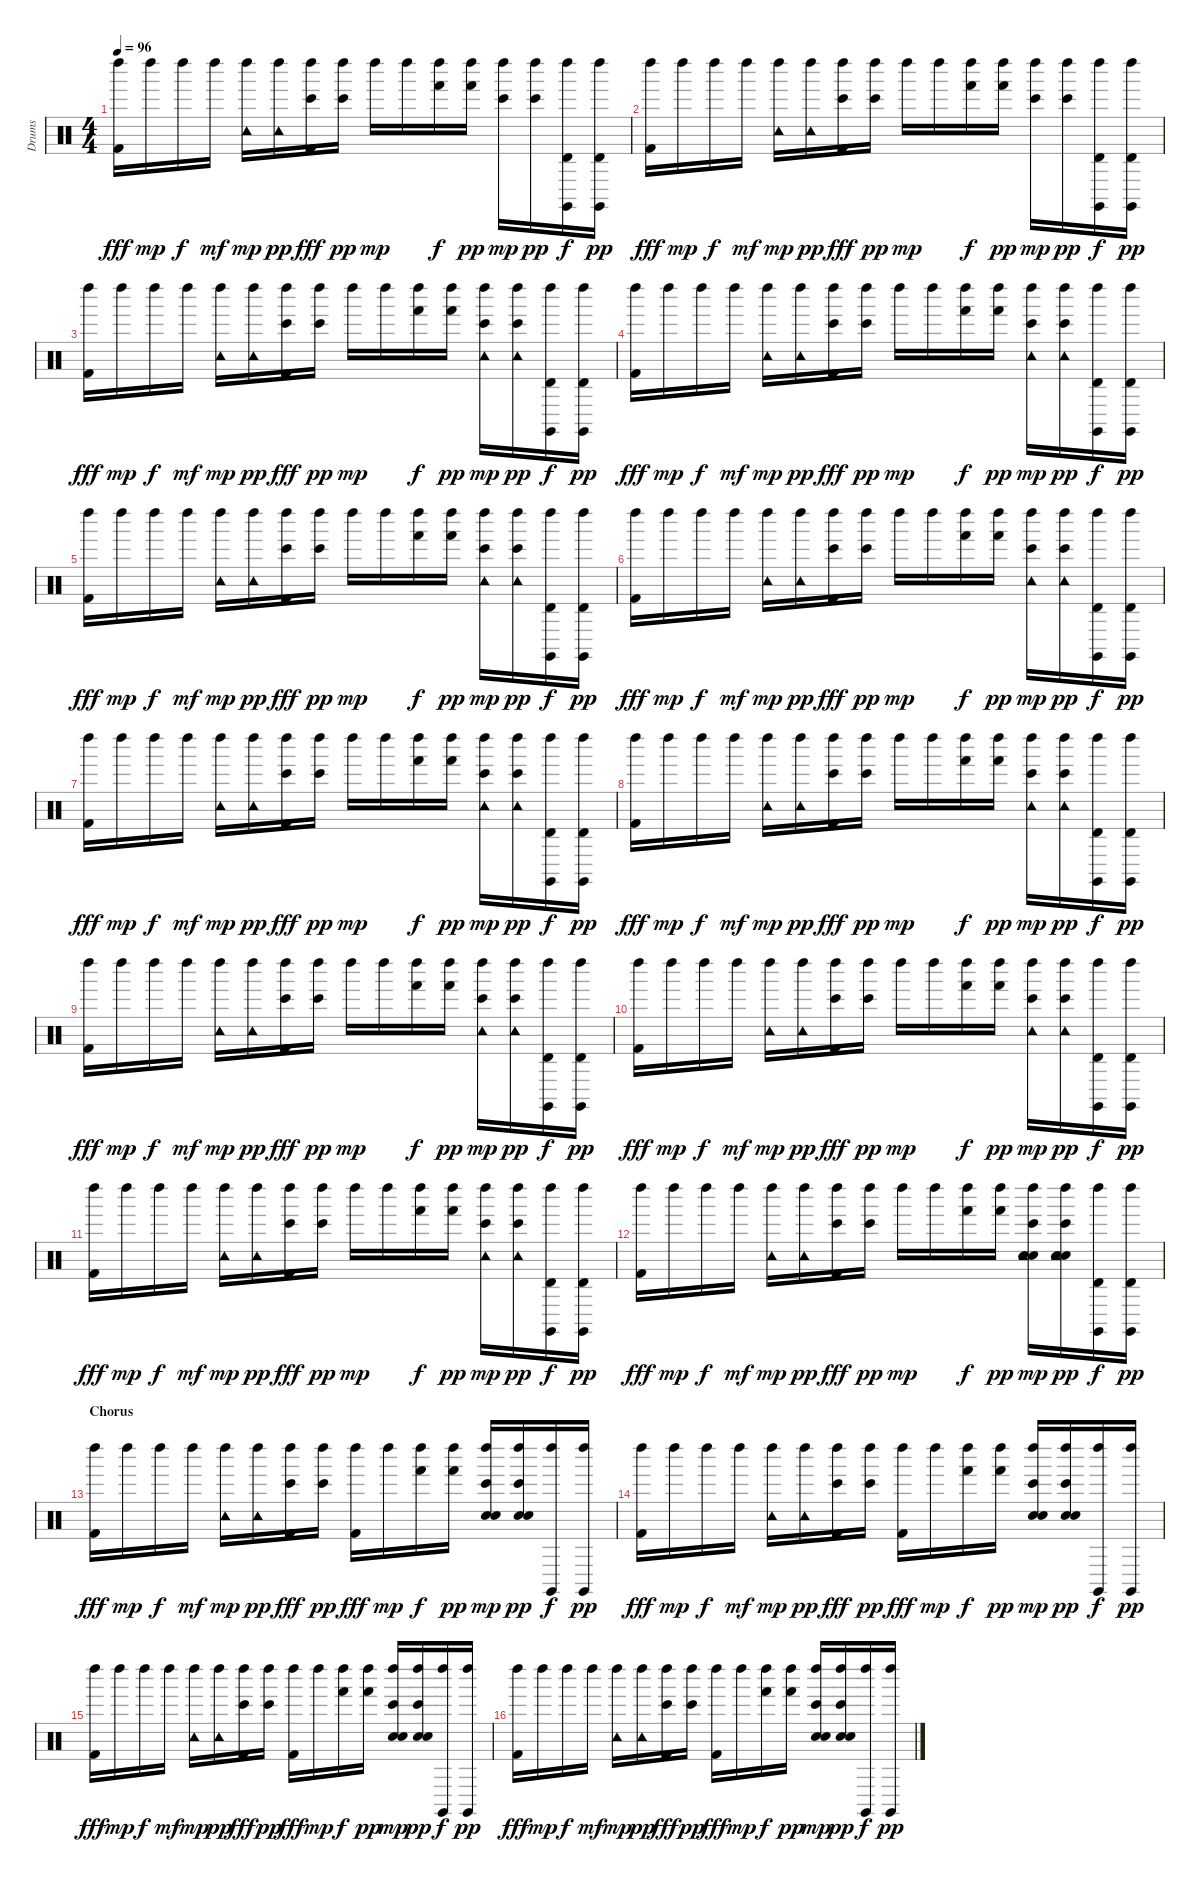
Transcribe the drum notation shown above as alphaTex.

\track ("Drums" "Drums") {instrument percussion}
\staff {score}
\articulation defaults
\ts (4 4)
\tempo 96
\clef neutral
\ks c
("Left Maraca (hit)" "Kick (hit) 2").16{dy fff} "Left Maraca (hit)".16{dy mp} "Left Maraca (hit)".16{dy f} "Left Maraca (hit)".16{dy mf} ("Left Maraca (hit)" "Tambourine (hit)").16{dy mp} ("Left Maraca (hit)" "Tambourine (hit)").16{dy pp} ("Left Maraca (hit)" "Bongo High (hit)" "Kick (hit) 2").16{dy fff} ("Left Maraca (hit)" "Bongo High (hit)").16{dy pp} "Left Maraca (hit)".16{dy mp} "Left Maraca (hit)".16 ("Left Maraca (hit)" "Hand (hit)").16{dy f} ("Left Maraca (hit)" "Hand (hit)").16{dy pp} ("Left Maraca (hit)" "Bongo High (hit)").16{dy mp} ("Left Maraca (hit)" "Bongo High (hit)").16{dy pp} ("Left Maraca (hit)" "Claves (hit)" "Timbale high (hit)").16{dy f} ("Left Maraca (hit)" "Claves (hit)" "Timbale high (hit)").16{dy pp} |
("Left Maraca (hit)" "Kick (hit) 2").16{dy fff} "Left Maraca (hit)".16{dy mp} "Left Maraca (hit)".16{dy f} "Left Maraca (hit)".16{dy mf} ("Left Maraca (hit)" "Tambourine (hit)").16{dy mp} ("Left Maraca (hit)" "Tambourine (hit)").16{dy pp} ("Left Maraca (hit)" "Bongo High (hit)" "Kick (hit) 2").16{dy fff} ("Left Maraca (hit)" "Bongo High (hit)").16{dy pp} "Left Maraca (hit)".16{dy mp} "Left Maraca (hit)".16 ("Left Maraca (hit)" "Hand (hit)").16{dy f} ("Left Maraca (hit)" "Hand (hit)").16{dy pp} ("Left Maraca (hit)" "Bongo High (hit)").16{dy mp} ("Left Maraca (hit)" "Bongo High (hit)").16{dy pp} ("Left Maraca (hit)" "Claves (hit)" "Timbale high (hit)").16{dy f} ("Left Maraca (hit)" "Claves (hit)" "Timbale high (hit)").16{dy pp} |
("Left Maraca (hit)" "Kick (hit) 2").16{dy fff} "Left Maraca (hit)".16{dy mp} "Left Maraca (hit)".16{dy f} "Left Maraca (hit)".16{dy mf} ("Left Maraca (hit)" "Tambourine (hit)").16{dy mp} ("Left Maraca (hit)" "Tambourine (hit)").16{dy pp} ("Left Maraca (hit)" "Bongo High (hit)" "Kick (hit) 2").16{dy fff} ("Left Maraca (hit)" "Bongo High (hit)").16{dy pp} "Left Maraca (hit)".16{dy mp} "Left Maraca (hit)".16 ("Left Maraca (hit)" "Hand (hit)").16{dy f} ("Left Maraca (hit)" "Hand (hit)").16{dy pp} ("Left Maraca (hit)" "Bongo High (hit)" "Tambourine (hit)").16{dy mp} ("Left Maraca (hit)" "Bongo High (hit)" "Tambourine (hit)").16{dy pp} ("Left Maraca (hit)" "Claves (hit)" "Timbale high (hit)").16{dy f} ("Left Maraca (hit)" "Claves (hit)" "Timbale high (hit)").16{dy pp} |
("Left Maraca (hit)" "Kick (hit) 2").16{dy fff} "Left Maraca (hit)".16{dy mp} "Left Maraca (hit)".16{dy f} "Left Maraca (hit)".16{dy mf} ("Left Maraca (hit)" "Tambourine (hit)").16{dy mp} ("Left Maraca (hit)" "Tambourine (hit)").16{dy pp} ("Left Maraca (hit)" "Bongo High (hit)" "Kick (hit) 2").16{dy fff} ("Left Maraca (hit)" "Bongo High (hit)").16{dy pp} "Left Maraca (hit)".16{dy mp} "Left Maraca (hit)".16 ("Left Maraca (hit)" "Hand (hit)").16{dy f} ("Left Maraca (hit)" "Hand (hit)").16{dy pp} ("Left Maraca (hit)" "Bongo High (hit)" "Tambourine (hit)").16{dy mp} ("Left Maraca (hit)" "Bongo High (hit)" "Tambourine (hit)").16{dy pp} ("Left Maraca (hit)" "Claves (hit)" "Timbale high (hit)").16{dy f} ("Left Maraca (hit)" "Claves (hit)" "Timbale high (hit)").16{dy pp} |
("Left Maraca (hit)" "Kick (hit) 2").16{dy fff} "Left Maraca (hit)".16{dy mp} "Left Maraca (hit)".16{dy f} "Left Maraca (hit)".16{dy mf} ("Left Maraca (hit)" "Tambourine (hit)").16{dy mp} ("Left Maraca (hit)" "Tambourine (hit)").16{dy pp} ("Left Maraca (hit)" "Bongo High (hit)" "Kick (hit) 2").16{dy fff} ("Left Maraca (hit)" "Bongo High (hit)").16{dy pp} "Left Maraca (hit)".16{dy mp} "Left Maraca (hit)".16 ("Left Maraca (hit)" "Hand (hit)").16{dy f} ("Left Maraca (hit)" "Hand (hit)").16{dy pp} ("Left Maraca (hit)" "Bongo High (hit)" "Tambourine (hit)").16{dy mp} ("Left Maraca (hit)" "Bongo High (hit)" "Tambourine (hit)").16{dy pp} ("Left Maraca (hit)" "Claves (hit)" "Timbale high (hit)").16{dy f} ("Left Maraca (hit)" "Claves (hit)" "Timbale high (hit)").16{dy pp} |
("Left Maraca (hit)" "Kick (hit) 2").16{dy fff} "Left Maraca (hit)".16{dy mp} "Left Maraca (hit)".16{dy f} "Left Maraca (hit)".16{dy mf} ("Left Maraca (hit)" "Tambourine (hit)").16{dy mp} ("Left Maraca (hit)" "Tambourine (hit)").16{dy pp} ("Left Maraca (hit)" "Bongo High (hit)" "Kick (hit) 2").16{dy fff} ("Left Maraca (hit)" "Bongo High (hit)").16{dy pp} "Left Maraca (hit)".16{dy mp} "Left Maraca (hit)".16 ("Left Maraca (hit)" "Hand (hit)").16{dy f} ("Left Maraca (hit)" "Hand (hit)").16{dy pp} ("Left Maraca (hit)" "Bongo High (hit)" "Tambourine (hit)").16{dy mp} ("Left Maraca (hit)" "Bongo High (hit)" "Tambourine (hit)").16{dy pp} ("Left Maraca (hit)" "Claves (hit)" "Timbale high (hit)").16{dy f} ("Left Maraca (hit)" "Claves (hit)" "Timbale high (hit)").16{dy pp} |
("Left Maraca (hit)" "Kick (hit) 2").16{dy fff} "Left Maraca (hit)".16{dy mp} "Left Maraca (hit)".16{dy f} "Left Maraca (hit)".16{dy mf} ("Left Maraca (hit)" "Tambourine (hit)").16{dy mp} ("Left Maraca (hit)" "Tambourine (hit)").16{dy pp} ("Left Maraca (hit)" "Bongo High (hit)" "Kick (hit) 2").16{dy fff} ("Left Maraca (hit)" "Bongo High (hit)").16{dy pp} "Left Maraca (hit)".16{dy mp} "Left Maraca (hit)".16 ("Left Maraca (hit)" "Hand (hit)").16{dy f} ("Left Maraca (hit)" "Hand (hit)").16{dy pp} ("Left Maraca (hit)" "Bongo High (hit)" "Tambourine (hit)").16{dy mp} ("Left Maraca (hit)" "Bongo High (hit)" "Tambourine (hit)").16{dy pp} ("Left Maraca (hit)" "Claves (hit)" "Timbale high (hit)").16{dy f} ("Left Maraca (hit)" "Claves (hit)" "Timbale high (hit)").16{dy pp} |
("Left Maraca (hit)" "Kick (hit) 2").16{dy fff} "Left Maraca (hit)".16{dy mp} "Left Maraca (hit)".16{dy f} "Left Maraca (hit)".16{dy mf} ("Left Maraca (hit)" "Tambourine (hit)").16{dy mp} ("Left Maraca (hit)" "Tambourine (hit)").16{dy pp} ("Left Maraca (hit)" "Bongo High (hit)" "Kick (hit) 2").16{dy fff} ("Left Maraca (hit)" "Bongo High (hit)").16{dy pp} "Left Maraca (hit)".16{dy mp} "Left Maraca (hit)".16 ("Left Maraca (hit)" "Hand (hit)").16{dy f} ("Left Maraca (hit)" "Hand (hit)").16{dy pp} ("Left Maraca (hit)" "Bongo High (hit)" "Tambourine (hit)").16{dy mp} ("Left Maraca (hit)" "Bongo High (hit)" "Tambourine (hit)").16{dy pp} ("Left Maraca (hit)" "Claves (hit)" "Timbale high (hit)").16{dy f} ("Left Maraca (hit)" "Claves (hit)" "Timbale high (hit)").16{dy pp} |
("Left Maraca (hit)" "Kick (hit) 2").16{dy fff} "Left Maraca (hit)".16{dy mp} "Left Maraca (hit)".16{dy f} "Left Maraca (hit)".16{dy mf} ("Left Maraca (hit)" "Tambourine (hit)").16{dy mp} ("Left Maraca (hit)" "Tambourine (hit)").16{dy pp} ("Left Maraca (hit)" "Bongo High (hit)" "Kick (hit) 2").16{dy fff} ("Left Maraca (hit)" "Bongo High (hit)").16{dy pp} "Left Maraca (hit)".16{dy mp} "Left Maraca (hit)".16 ("Left Maraca (hit)" "Hand (hit)").16{dy f} ("Left Maraca (hit)" "Hand (hit)").16{dy pp} ("Left Maraca (hit)" "Bongo High (hit)" "Tambourine (hit)").16{dy mp} ("Left Maraca (hit)" "Bongo High (hit)" "Tambourine (hit)").16{dy pp} ("Left Maraca (hit)" "Claves (hit)" "Timbale high (hit)").16{dy f} ("Left Maraca (hit)" "Claves (hit)" "Timbale high (hit)").16{dy pp} |
("Left Maraca (hit)" "Kick (hit) 2").16{dy fff} "Left Maraca (hit)".16{dy mp} "Left Maraca (hit)".16{dy f} "Left Maraca (hit)".16{dy mf} ("Left Maraca (hit)" "Tambourine (hit)").16{dy mp} ("Left Maraca (hit)" "Tambourine (hit)").16{dy pp} ("Left Maraca (hit)" "Bongo High (hit)" "Kick (hit) 2").16{dy fff} ("Left Maraca (hit)" "Bongo High (hit)").16{dy pp} "Left Maraca (hit)".16{dy mp} "Left Maraca (hit)".16 ("Left Maraca (hit)" "Hand (hit)").16{dy f} ("Left Maraca (hit)" "Hand (hit)").16{dy pp} ("Left Maraca (hit)" "Bongo High (hit)" "Tambourine (hit)").16{dy mp} ("Left Maraca (hit)" "Bongo High (hit)" "Tambourine (hit)").16{dy pp} ("Left Maraca (hit)" "Claves (hit)" "Timbale high (hit)").16{dy f} ("Left Maraca (hit)" "Claves (hit)" "Timbale high (hit)").16{dy pp} |
("Left Maraca (hit)" "Kick (hit) 2").16{dy fff} "Left Maraca (hit)".16{dy mp} "Left Maraca (hit)".16{dy f} "Left Maraca (hit)".16{dy mf} ("Left Maraca (hit)" "Tambourine (hit)").16{dy mp} ("Left Maraca (hit)" "Tambourine (hit)").16{dy pp} ("Left Maraca (hit)" "Bongo High (hit)" "Kick (hit) 2").16{dy fff} ("Left Maraca (hit)" "Bongo High (hit)").16{dy pp} "Left Maraca (hit)".16{dy mp} "Left Maraca (hit)".16 ("Left Maraca (hit)" "Hand (hit)").16{dy f} ("Left Maraca (hit)" "Hand (hit)").16{dy pp} ("Left Maraca (hit)" "Bongo High (hit)" "Tambourine (hit)").16{dy mp} ("Left Maraca (hit)" "Bongo High (hit)" "Tambourine (hit)").16{dy pp} ("Left Maraca (hit)" "Claves (hit)" "Timbale high (hit)").16{dy f} ("Left Maraca (hit)" "Claves (hit)" "Timbale high (hit)").16{dy pp} |
("Left Maraca (hit)" "Kick (hit) 2").16{dy fff} "Left Maraca (hit)".16{dy mp} "Left Maraca (hit)".16{dy f} "Left Maraca (hit)".16{dy mf} ("Left Maraca (hit)" "Tambourine (hit)").16{dy mp} ("Left Maraca (hit)" "Tambourine (hit)").16{dy pp} ("Left Maraca (hit)" "Bongo High (hit)" "Kick (hit) 2").16{dy fff} ("Left Maraca (hit)" "Bongo High (hit)").16{dy pp} "Left Maraca (hit)".16{dy mp} "Left Maraca (hit)".16 ("Left Maraca (hit)" "Hand (hit)").16{dy f} ("Left Maraca (hit)" "Hand (hit)").16{dy pp} ("Left Maraca (hit)" "Bongo High (hit)" "Snare (hit) 2" "Tambourine (hit)" "Electric Snare (hit)").16{dy mp} ("Left Maraca (hit)" "Bongo High (hit)" "Snare (hit) 2" "Tambourine (hit)" "Electric Snare (hit)").16{dy pp} ("Left Maraca (hit)" "Claves (hit)" "Timbale high (hit)").16{dy f} ("Left Maraca (hit)" "Claves (hit)" "Timbale high (hit)").16{dy pp} |
\section ("" "Chorus")
("Left Maraca (hit)" "Kick (hit) 2").16{dy fff} "Left Maraca (hit)".16{dy mp} "Left Maraca (hit)".16{dy f} "Left Maraca (hit)".16{dy mf} ("Left Maraca (hit)" "Tambourine (hit)").16{dy mp} ("Left Maraca (hit)" "Tambourine (hit)").16{dy pp} ("Left Maraca (hit)" "Bongo High (hit)" "Kick (hit) 2").16{dy fff} ("Left Maraca (hit)" "Bongo High (hit)").16{dy pp} ("Left Maraca (hit)" "Kick (hit) 2").16{dy fff} "Left Maraca (hit)".16{dy mp} ("Left Maraca (hit)" "Hand (hit)").16{dy f} ("Left Maraca (hit)" "Hand (hit)").16{dy pp} ("Left Maraca (hit)" "Bongo High (hit)" "Snare (hit) 2" "Electric Snare (hit)").16{dy mp} ("Left Maraca (hit)" "Bongo High (hit)" "Snare (hit) 2" "Electric Snare (hit)").16{dy pp} ("Left Maraca (hit)" "Claves (hit)").16{dy f} ("Left Maraca (hit)" "Claves (hit)").16{dy pp} |
("Left Maraca (hit)" "Kick (hit) 2").16{dy fff} "Left Maraca (hit)".16{dy mp} "Left Maraca (hit)".16{dy f} "Left Maraca (hit)".16{dy mf} ("Left Maraca (hit)" "Tambourine (hit)").16{dy mp} ("Left Maraca (hit)" "Tambourine (hit)").16{dy pp} ("Left Maraca (hit)" "Bongo High (hit)" "Kick (hit) 2").16{dy fff} ("Left Maraca (hit)" "Bongo High (hit)").16{dy pp} ("Left Maraca (hit)" "Kick (hit) 2").16{dy fff} "Left Maraca (hit)".16{dy mp} ("Left Maraca (hit)" "Hand (hit)").16{dy f} ("Left Maraca (hit)" "Hand (hit)").16{dy pp} ("Left Maraca (hit)" "Bongo High (hit)" "Snare (hit) 2" "Electric Snare (hit)").16{dy mp} ("Left Maraca (hit)" "Bongo High (hit)" "Snare (hit) 2" "Electric Snare (hit)").16{dy pp} ("Left Maraca (hit)" "Claves (hit)").16{dy f} ("Left Maraca (hit)" "Claves (hit)").16{dy pp} |
("Left Maraca (hit)" "Kick (hit) 2").16{dy fff} "Left Maraca (hit)".16{dy mp} "Left Maraca (hit)".16{dy f} "Left Maraca (hit)".16{dy mf} ("Left Maraca (hit)" "Tambourine (hit)").16{dy mp} ("Left Maraca (hit)" "Tambourine (hit)").16{dy pp} ("Left Maraca (hit)" "Bongo High (hit)" "Kick (hit) 2").16{dy fff} ("Left Maraca (hit)" "Bongo High (hit)").16{dy pp} ("Left Maraca (hit)" "Kick (hit) 2").16{dy fff} "Left Maraca (hit)".16{dy mp} ("Left Maraca (hit)" "Hand (hit)").16{dy f} ("Left Maraca (hit)" "Hand (hit)").16{dy pp} ("Left Maraca (hit)" "Bongo High (hit)" "Snare (hit) 2" "Electric Snare (hit)").16{dy mp} ("Left Maraca (hit)" "Bongo High (hit)" "Snare (hit) 2" "Electric Snare (hit)").16{dy pp} ("Left Maraca (hit)" "Claves (hit)").16{dy f} ("Left Maraca (hit)" "Claves (hit)").16{dy pp} |
("Left Maraca (hit)" "Kick (hit) 2").16{dy fff} "Left Maraca (hit)".16{dy mp} "Left Maraca (hit)".16{dy f} "Left Maraca (hit)".16{dy mf} ("Left Maraca (hit)" "Tambourine (hit)").16{dy mp} ("Left Maraca (hit)" "Tambourine (hit)").16{dy pp} ("Left Maraca (hit)" "Bongo High (hit)" "Kick (hit) 2").16{dy fff} ("Left Maraca (hit)" "Bongo High (hit)").16{dy pp} ("Left Maraca (hit)" "Kick (hit) 2").16{dy fff} "Left Maraca (hit)".16{dy mp} ("Left Maraca (hit)" "Hand (hit)").16{dy f} ("Left Maraca (hit)" "Hand (hit)").16{dy pp} ("Left Maraca (hit)" "Bongo High (hit)" "Snare (hit) 2" "Electric Snare (hit)").16{dy mp} ("Left Maraca (hit)" "Bongo High (hit)" "Snare (hit) 2" "Electric Snare (hit)").16{dy pp} ("Left Maraca (hit)" "Claves (hit)").16{dy f} ("Left Maraca (hit)" "Claves (hit)").16{dy pp}
